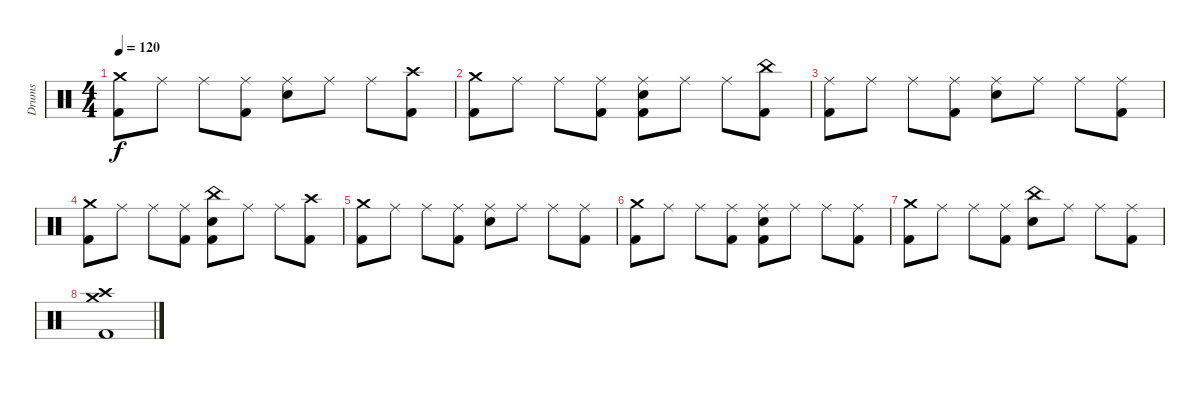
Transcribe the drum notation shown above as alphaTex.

\track ("Drums " "Drums ") {instrument percussion}
\staff {score}
\articulation defaults
\ts (4 4)
\tempo 120
\clef neutral
\ks c
("Crash medium (hit)" "Kick (hit) 2").8{dy f} "Ride (middle)".8 "Ride (middle)".8 ("Ride (middle)" "Kick (hit) 2").8 ("Ride (middle)" "Snare (hit) 2").8 "Ride (middle)".8 "Ride (middle)".8 ("Crash high (hit)" "Kick (hit) 2").8 |
("Crash medium (hit)" "Kick (hit) 2").8 "Ride (middle)".8 "Ride (middle)".8 ("Ride (middle)" "Kick (hit) 2").8 ("Ride (middle)" "Snare (hit) 2" "Kick (hit) 2").8 "Ride (middle)".8 "Ride (middle)".8 ("China (hit)" "Kick (hit) 2").8 |
("Ride (middle)" "Kick (hit) 2").8 "Ride (middle)".8 "Ride (middle)".8 ("Ride (middle)" "Kick (hit) 2").8 ("Ride (middle)" "Snare (hit) 2").8 "Ride (middle)".8 "Ride (middle)".8 ("Ride (middle)" "Kick (hit) 2").8 |
("Crash medium (hit)" "Kick (hit) 2").8 "Ride (middle)".8 "Ride (middle)".8 ("Ride (middle)" "Kick (hit) 2").8 ("China (hit)" "Snare (hit) 2" "Kick (hit) 2").8 "Ride (middle)".8 "Ride (middle)".8 ("Crash high (hit)" "Kick (hit) 2").8 |
("Crash medium (hit)" "Kick (hit) 2").8 "Ride (middle)".8 "Ride (middle)".8 ("Ride (middle)" "Kick (hit) 2").8 ("Ride (middle)" "Snare (hit) 2").8 "Ride (middle)".8 "Ride (middle)".8 ("Ride (middle)" "Kick (hit) 2").8 |
("Crash medium (hit)" "Kick (hit) 2").8 "Ride (middle)".8 "Ride (middle)".8 ("Ride (middle)" "Kick (hit) 2").8 ("Ride (middle)" "Snare (hit) 2" "Kick (hit) 2").8 "Ride (middle)".8 "Ride (middle)".8 ("Ride (middle)" "Kick (hit) 2").8 |
("Crash medium (hit)" "Kick (hit) 2").8 "Ride (middle)".8 "Ride (middle)".8 ("Ride (middle)" "Kick (hit) 2").8 ("China (hit)" "Snare (hit) 2").8 "Ride (middle)".8 "Ride (middle)".8 ("Ride (middle)" "Kick (hit) 2").8 |
("Crash medium (hit)" "Crash high (hit)" "Kick (hit) 2").1
